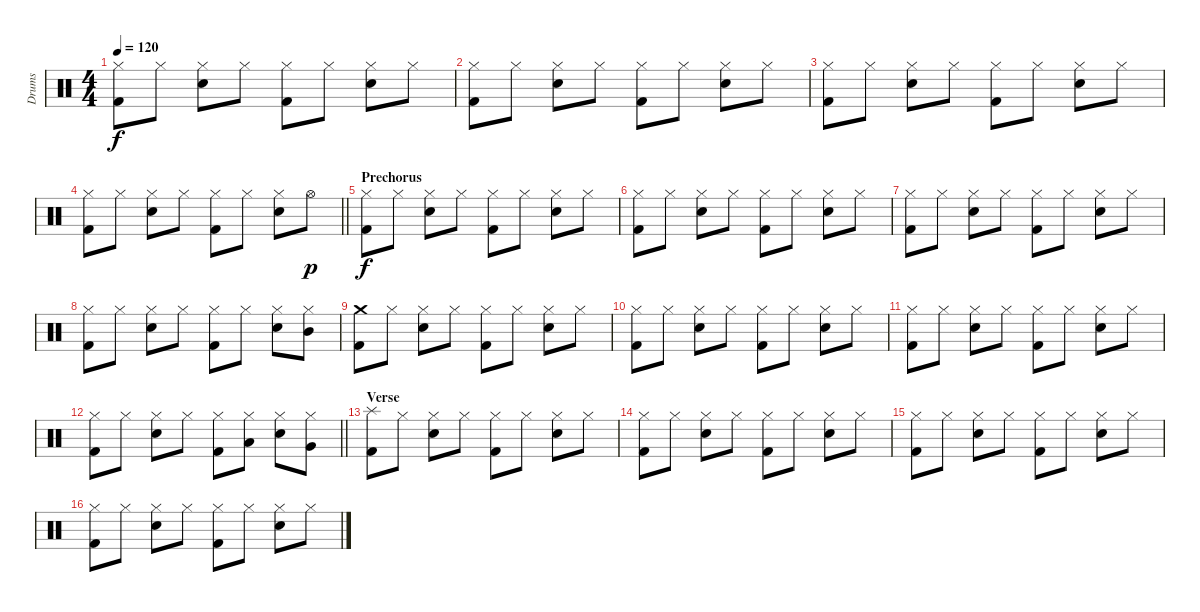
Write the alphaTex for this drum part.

\track ("Drums" "Drums") {instrument percussion}
\staff {score}
\articulation defaults
\ts (4 4)
\tempo 120
\clef neutral
\ks c
("Hi-Hat (closed)" "Kick (hit) 2").8{dy f} "Hi-Hat (closed)".8 ("Hi-Hat (closed)" "Electric Snare (hit)").8 "Hi-Hat (closed)".8 ("Hi-Hat (closed)" "Kick (hit) 2").8 "Hi-Hat (closed)".8 ("Hi-Hat (closed)" "Electric Snare (hit)").8 "Hi-Hat (closed)".8 |
("Hi-Hat (closed)" "Kick (hit) 2").8 "Hi-Hat (closed)".8 ("Hi-Hat (closed)" "Electric Snare (hit)").8 "Hi-Hat (closed)".8 ("Hi-Hat (closed)" "Kick (hit) 2").8 "Hi-Hat (closed)".8 ("Hi-Hat (closed)" "Electric Snare (hit)").8 "Hi-Hat (closed)".8 |
("Hi-Hat (closed)" "Kick (hit) 2").8 "Hi-Hat (closed)".8 ("Hi-Hat (closed)" "Electric Snare (hit)").8 "Hi-Hat (closed)".8 ("Hi-Hat (closed)" "Kick (hit) 2").8 "Hi-Hat (closed)".8 ("Hi-Hat (closed)" "Electric Snare (hit)").8 "Hi-Hat (closed)".8 |
\barLineRight lightlight
("Hi-Hat (closed)" "Kick (hit) 2").8 "Hi-Hat (closed)".8 ("Hi-Hat (closed)" "Electric Snare (hit)").8 "Hi-Hat (closed)".8 ("Hi-Hat (closed)" "Kick (hit) 2").8 "Hi-Hat (closed)".8 ("Hi-Hat (closed)" "Electric Snare (hit)").8 "Hi-Hat (open)".8{dy p} |
\section ("" "Prechorus")
("Hi-Hat (closed)" "Kick (hit) 2").8{dy f} "Hi-Hat (closed)".8 ("Hi-Hat (closed)" "Electric Snare (hit)").8 "Hi-Hat (closed)".8 ("Hi-Hat (closed)" "Kick (hit) 2").8 "Hi-Hat (closed)".8 ("Hi-Hat (closed)" "Electric Snare (hit)").8 "Hi-Hat (closed)".8 |
("Hi-Hat (closed)" "Kick (hit) 2").8 "Hi-Hat (closed)".8 ("Hi-Hat (closed)" "Electric Snare (hit)").8 "Hi-Hat (closed)".8 ("Hi-Hat (closed)" "Kick (hit) 2").8 "Hi-Hat (closed)".8 ("Hi-Hat (closed)" "Electric Snare (hit)").8 "Hi-Hat (closed)".8 |
("Hi-Hat (closed)" "Kick (hit) 2").8 "Hi-Hat (closed)".8 ("Hi-Hat (closed)" "Electric Snare (hit)").8 "Hi-Hat (closed)".8 ("Hi-Hat (closed)" "Kick (hit) 2").8 "Hi-Hat (closed)".8 ("Hi-Hat (closed)" "Electric Snare (hit)").8 "Hi-Hat (closed)".8 |
("Hi-Hat (closed)" "Kick (hit) 2").8 "Hi-Hat (closed)".8 ("Hi-Hat (closed)" "Electric Snare (hit)").8 "Hi-Hat (closed)".8 ("Hi-Hat (closed)" "Kick (hit) 2").8 "Hi-Hat (closed)".8 ("Hi-Hat (closed)" "Electric Snare (hit)").8 ("Hi-Hat (closed)" "Mid Tom (hit)").8 |
("Crash medium (hit)" "Kick (hit) 2").8 "Hi-Hat (closed)".8 ("Hi-Hat (closed)" "Electric Snare (hit)").8 "Hi-Hat (closed)".8 ("Hi-Hat (closed)" "Kick (hit) 2").8 "Hi-Hat (closed)".8 ("Hi-Hat (closed)" "Electric Snare (hit)").8 "Hi-Hat (closed)".8 |
("Hi-Hat (closed)" "Kick (hit) 2").8 "Hi-Hat (closed)".8 ("Hi-Hat (closed)" "Electric Snare (hit)").8 "Hi-Hat (closed)".8 ("Hi-Hat (closed)" "Kick (hit) 2").8 "Hi-Hat (closed)".8 ("Hi-Hat (closed)" "Electric Snare (hit)").8 "Hi-Hat (closed)".8 |
("Hi-Hat (closed)" "Kick (hit) 2").8 "Hi-Hat (closed)".8 ("Hi-Hat (closed)" "Electric Snare (hit)").8 "Hi-Hat (closed)".8 ("Hi-Hat (closed)" "Kick (hit) 2").8 "Hi-Hat (closed)".8 ("Hi-Hat (closed)" "Electric Snare (hit)").8 "Hi-Hat (closed)".8 |
\barLineRight lightlight
("Hi-Hat (closed)" "Kick (hit) 2").8 "Hi-Hat (closed)".8 ("Hi-Hat (closed)" "Electric Snare (hit)").8 "Hi-Hat (closed)".8 ("Hi-Hat (closed)" "Kick (hit) 2").8 ("Hi-Hat (closed)" "Low Tom (hit)").8 ("Hi-Hat (closed)" "Electric Snare (hit)").8 ("Hi-Hat (closed)" "Very Low Tom (hit)").8 |
\section ("" "Verse")
("Splash (hit)" "Kick (hit) 2").8 "Hi-Hat (closed)".8 ("Hi-Hat (closed)" "Electric Snare (hit)").8 "Hi-Hat (closed)".8 ("Hi-Hat (closed)" "Kick (hit) 2").8 "Hi-Hat (closed)".8 ("Hi-Hat (closed)" "Electric Snare (hit)").8 "Hi-Hat (closed)".8 |
("Hi-Hat (closed)" "Kick (hit) 2").8 "Hi-Hat (closed)".8 ("Hi-Hat (closed)" "Electric Snare (hit)").8 "Hi-Hat (closed)".8 ("Hi-Hat (closed)" "Kick (hit) 2").8 "Hi-Hat (closed)".8 ("Hi-Hat (closed)" "Electric Snare (hit)").8 "Hi-Hat (closed)".8 |
("Hi-Hat (closed)" "Kick (hit) 2").8 "Hi-Hat (closed)".8 ("Hi-Hat (closed)" "Electric Snare (hit)").8 "Hi-Hat (closed)".8 ("Hi-Hat (closed)" "Kick (hit) 2").8 "Hi-Hat (closed)".8 ("Hi-Hat (closed)" "Electric Snare (hit)").8 "Hi-Hat (closed)".8 |
("Hi-Hat (closed)" "Kick (hit) 2").8 "Hi-Hat (closed)".8 ("Hi-Hat (closed)" "Electric Snare (hit)").8 "Hi-Hat (closed)".8 ("Hi-Hat (closed)" "Kick (hit) 2").8 "Hi-Hat (closed)".8 ("Hi-Hat (closed)" "Electric Snare (hit)").8 "Hi-Hat (closed)".8
